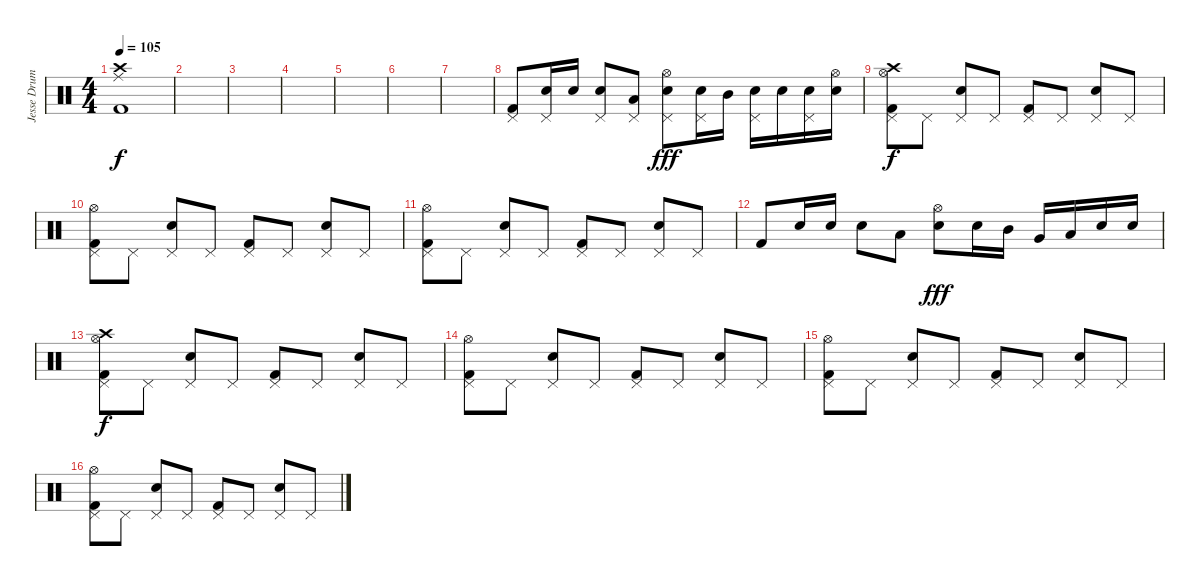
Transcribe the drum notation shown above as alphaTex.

\track ("Jesse Drums" "Jesse Drum") {instrument percussion}
\staff {score}
\articulation defaults
\ts (4 4)
\tempo 105
\clef neutral
\ks c
("Crash high (hit)" "Ride (middle)" "Kick (hit) 2").1{dy f} |
|
|
|
|
|
|
("Pedal Hi-Hat (hit)" "Kick (hit) 2").8 ("Pedal Hi-Hat (hit)" "Electric Snare (hit)").16 "Electric Snare (hit)".16 ("Pedal Hi-Hat (hit)" "Electric Snare (hit)").8 ("Pedal Hi-Hat (hit)" "Low Tom (hit)").8 ("Pedal Hi-Hat (hit)" "Hi-Hat (open)" "Electric Snare (hit)").8{dy fff} ("Pedal Hi-Hat (hit)" "Electric Snare (hit)").16 "Mid Tom (hit)".16 ("Pedal Hi-Hat (hit)" "Electric Snare (hit)").16 "Electric Snare (hit)".16 ("Pedal Hi-Hat (hit)" "Electric Snare (hit)").16 ("Hi-Hat (open)" "Electric Snare (hit)").16 |
("Pedal Hi-Hat (hit)" "Hi-Hat (open)" "Kick (hit) 2" "Crash high (hit)").8{dy f} "Pedal Hi-Hat (hit)".8 ("Pedal Hi-Hat (hit)" "Electric Snare (hit)").8 "Pedal Hi-Hat (hit)".8 ("Pedal Hi-Hat (hit)" "Kick (hit) 2").8 "Pedal Hi-Hat (hit)".8 ("Pedal Hi-Hat (hit)" "Electric Snare (hit)").8 "Pedal Hi-Hat (hit)".8 |
("Pedal Hi-Hat (hit)" "Hi-Hat (open)" "Kick (hit) 2").8 "Pedal Hi-Hat (hit)".8 ("Pedal Hi-Hat (hit)" "Electric Snare (hit)").8 "Pedal Hi-Hat (hit)".8 ("Pedal Hi-Hat (hit)" "Kick (hit) 2").8 "Pedal Hi-Hat (hit)".8 ("Pedal Hi-Hat (hit)" "Electric Snare (hit)").8 "Pedal Hi-Hat (hit)".8 |
("Pedal Hi-Hat (hit)" "Hi-Hat (open)" "Kick (hit) 2").8 "Pedal Hi-Hat (hit)".8 ("Pedal Hi-Hat (hit)" "Electric Snare (hit)").8 "Pedal Hi-Hat (hit)".8 ("Pedal Hi-Hat (hit)" "Kick (hit) 2").8 "Pedal Hi-Hat (hit)".8 ("Pedal Hi-Hat (hit)" "Electric Snare (hit)").8 "Pedal Hi-Hat (hit)".8 |
"Kick (hit) 2".8 "Electric Snare (hit)".16 "Electric Snare (hit)".16 "Electric Snare (hit)".8 "Low Tom (hit)".8 ("Hi-Hat (open)" "Electric Snare (hit)").8{dy fff} "Electric Snare (hit)".16 "Mid Tom (hit)".16 "Very Low Tom (hit)".16 "Low Tom (hit)".16 "Electric Snare (hit)".16 "Electric Snare (hit)".16 |
("Pedal Hi-Hat (hit)" "Hi-Hat (open)" "Kick (hit) 2" "Crash high (hit)").8{dy f} "Pedal Hi-Hat (hit)".8 ("Pedal Hi-Hat (hit)" "Electric Snare (hit)").8 "Pedal Hi-Hat (hit)".8 ("Pedal Hi-Hat (hit)" "Kick (hit) 2").8 "Pedal Hi-Hat (hit)".8 ("Pedal Hi-Hat (hit)" "Electric Snare (hit)").8 "Pedal Hi-Hat (hit)".8 |
("Pedal Hi-Hat (hit)" "Hi-Hat (open)" "Kick (hit) 2").8 "Pedal Hi-Hat (hit)".8 ("Pedal Hi-Hat (hit)" "Electric Snare (hit)").8 "Pedal Hi-Hat (hit)".8 ("Pedal Hi-Hat (hit)" "Kick (hit) 2").8 "Pedal Hi-Hat (hit)".8 ("Pedal Hi-Hat (hit)" "Electric Snare (hit)").8 "Pedal Hi-Hat (hit)".8 |
("Pedal Hi-Hat (hit)" "Hi-Hat (open)" "Kick (hit) 2").8 "Pedal Hi-Hat (hit)".8 ("Pedal Hi-Hat (hit)" "Electric Snare (hit)").8 "Pedal Hi-Hat (hit)".8 ("Pedal Hi-Hat (hit)" "Kick (hit) 2").8 "Pedal Hi-Hat (hit)".8 ("Pedal Hi-Hat (hit)" "Electric Snare (hit)").8 "Pedal Hi-Hat (hit)".8 |
("Pedal Hi-Hat (hit)" "Hi-Hat (open)" "Kick (hit) 2").8 "Pedal Hi-Hat (hit)".8 ("Pedal Hi-Hat (hit)" "Electric Snare (hit)").8 "Pedal Hi-Hat (hit)".8 ("Pedal Hi-Hat (hit)" "Kick (hit) 2").8 "Pedal Hi-Hat (hit)".8 ("Pedal Hi-Hat (hit)" "Electric Snare (hit)").8 "Pedal Hi-Hat (hit)".8
